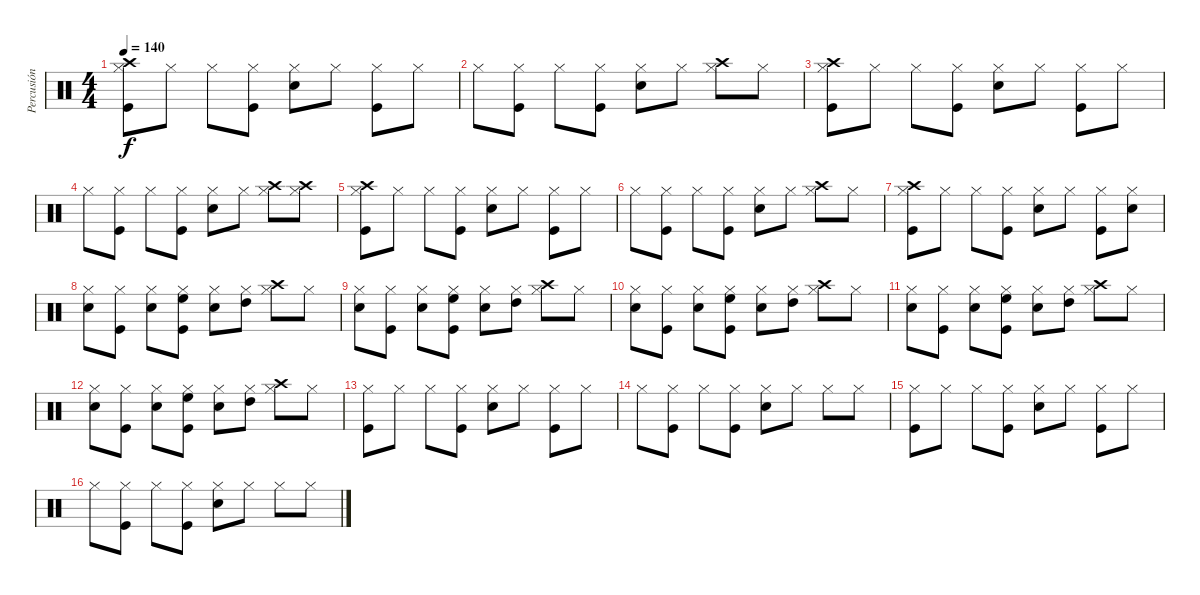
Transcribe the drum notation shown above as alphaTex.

\track ("Percusión" "Percusión") {instrument percussion}
\staff {score}
\articulation defaults
\ts (4 4)
\tempo 140
\clef neutral
\ks c
("Crash high (hit)" "Hi-Hat (closed)" "Kick (hit)").8{dy f} "Hi-Hat (closed)".8 "Hi-Hat (closed)".8 ("Hi-Hat (closed)" "Kick (hit)").8 ("Hi-Hat (closed)" "Electric Snare (hit)").8 "Hi-Hat (closed)".8 ("Hi-Hat (closed)" "Kick (hit)").8 "Hi-Hat (closed)".8 |
"Hi-Hat (closed)".8 ("Hi-Hat (closed)" "Kick (hit)").8 "Hi-Hat (closed)".8 ("Hi-Hat (closed)" "Kick (hit)").8 ("Hi-Hat (closed)" "Electric Snare (hit)").8 "Hi-Hat (closed)".8 ("Crash high (hit)" "Hi-Hat (closed)").8 "Hi-Hat (closed)".8 |
("Crash high (hit)" "Hi-Hat (closed)" "Kick (hit)").8 "Hi-Hat (closed)".8 "Hi-Hat (closed)".8 ("Hi-Hat (closed)" "Kick (hit)").8 ("Hi-Hat (closed)" "Electric Snare (hit)").8 "Hi-Hat (closed)".8 ("Hi-Hat (closed)" "Kick (hit)").8 "Hi-Hat (closed)".8 |
"Hi-Hat (closed)".8 ("Hi-Hat (closed)" "Kick (hit)").8 "Hi-Hat (closed)".8 ("Hi-Hat (closed)" "Kick (hit)").8 ("Hi-Hat (closed)" "Electric Snare (hit)").8 "Hi-Hat (closed)".8 ("Crash high (hit)" "Hi-Hat (closed)").8 ("Crash high (hit)" "Hi-Hat (closed)").8 |
("Crash high (hit)" "Hi-Hat (closed)" "Kick (hit)").8 "Hi-Hat (closed)".8 "Hi-Hat (closed)".8 ("Hi-Hat (closed)" "Kick (hit)").8 ("Hi-Hat (closed)" "Electric Snare (hit)").8 "Hi-Hat (closed)".8 ("Hi-Hat (closed)" "Kick (hit)").8 "Hi-Hat (closed)".8 |
"Hi-Hat (closed)".8 ("Hi-Hat (closed)" "Kick (hit)").8 "Hi-Hat (closed)".8 ("Hi-Hat (closed)" "Kick (hit)").8 ("Hi-Hat (closed)" "Electric Snare (hit)").8 "Hi-Hat (closed)".8 ("Crash high (hit)" "Hi-Hat (closed)").8 "Hi-Hat (closed)".8 |
("Crash high (hit)" "Hi-Hat (closed)" "Kick (hit)").8 "Hi-Hat (closed)".8 "Hi-Hat (closed)".8 ("Hi-Hat (closed)" "Kick (hit)").8 ("Hi-Hat (closed)" "Electric Snare (hit)").8 "Hi-Hat (closed)".8 ("Hi-Hat (closed)" "Kick (hit)").8 ("Hi-Hat (closed)" "Electric Snare (hit)").8 |
("Hi-Hat (closed)" "Electric Snare (hit)").8 ("Hi-Hat (closed)" "Kick (hit)").8 ("Hi-Hat (closed)" "Electric Snare (hit)").8 ("Hi-Hat (closed)" "High Floor Tom (hit)" "Kick (hit)").8 ("Hi-Hat (closed)" "Electric Snare (hit)").8 ("Hi-Hat (closed)" "High Tom (hit)").8 ("Crash high (hit)" "Hi-Hat (closed)").8 "Hi-Hat (closed)".8 |
("Hi-Hat (closed)" "Electric Snare (hit)").8 ("Hi-Hat (closed)" "Kick (hit)").8 ("Hi-Hat (closed)" "Electric Snare (hit)").8 ("Hi-Hat (closed)" "High Floor Tom (hit)" "Kick (hit)").8 ("Hi-Hat (closed)" "Electric Snare (hit)").8 ("Hi-Hat (closed)" "High Tom (hit)").8 ("Crash high (hit)" "Hi-Hat (closed)").8 "Hi-Hat (closed)".8 |
("Hi-Hat (closed)" "Electric Snare (hit)").8 ("Hi-Hat (closed)" "Kick (hit)").8 ("Hi-Hat (closed)" "Electric Snare (hit)").8 ("Hi-Hat (closed)" "High Floor Tom (hit)" "Kick (hit)").8 ("Hi-Hat (closed)" "Electric Snare (hit)").8 ("Hi-Hat (closed)" "High Tom (hit)").8 ("Crash high (hit)" "Hi-Hat (closed)").8 "Hi-Hat (closed)".8 |
("Hi-Hat (closed)" "Electric Snare (hit)").8 ("Hi-Hat (closed)" "Kick (hit)").8 ("Hi-Hat (closed)" "Electric Snare (hit)").8 ("Hi-Hat (closed)" "High Floor Tom (hit)" "Kick (hit)").8 ("Hi-Hat (closed)" "Electric Snare (hit)").8 ("Hi-Hat (closed)" "High Tom (hit)").8 ("Crash high (hit)" "Hi-Hat (closed)").8 "Hi-Hat (closed)".8 |
("Hi-Hat (closed)" "Electric Snare (hit)").8 ("Hi-Hat (closed)" "Kick (hit)").8 ("Hi-Hat (closed)" "Electric Snare (hit)").8 ("Hi-Hat (closed)" "High Floor Tom (hit)" "Kick (hit)").8 ("Hi-Hat (closed)" "Electric Snare (hit)").8 ("Hi-Hat (closed)" "High Tom (hit)").8 ("Crash high (hit)" "Hi-Hat (closed)").8 "Hi-Hat (closed)".8 |
("Hi-Hat (closed)" "Kick (hit)").8 "Hi-Hat (closed)".8 "Hi-Hat (closed)".8 ("Hi-Hat (closed)" "Kick (hit)").8 ("Hi-Hat (closed)" "Electric Snare (hit)").8 "Hi-Hat (closed)".8 ("Hi-Hat (closed)" "Kick (hit)").8 "Hi-Hat (closed)".8 |
"Hi-Hat (closed)".8 ("Hi-Hat (closed)" "Kick (hit)").8 "Hi-Hat (closed)".8 ("Hi-Hat (closed)" "Kick (hit)").8 ("Hi-Hat (closed)" "Electric Snare (hit)").8 "Hi-Hat (closed)".8 "Hi-Hat (closed)".8 "Hi-Hat (closed)".8 |
("Hi-Hat (closed)" "Kick (hit)").8 "Hi-Hat (closed)".8 "Hi-Hat (closed)".8 ("Hi-Hat (closed)" "Kick (hit)").8 ("Hi-Hat (closed)" "Electric Snare (hit)").8 "Hi-Hat (closed)".8 ("Hi-Hat (closed)" "Kick (hit)").8 "Hi-Hat (closed)".8 |
"Hi-Hat (closed)".8 ("Hi-Hat (closed)" "Kick (hit)").8 "Hi-Hat (closed)".8 ("Hi-Hat (closed)" "Kick (hit)").8 ("Hi-Hat (closed)" "Electric Snare (hit)").8 "Hi-Hat (closed)".8 "Hi-Hat (closed)".8 "Hi-Hat (closed)".8
